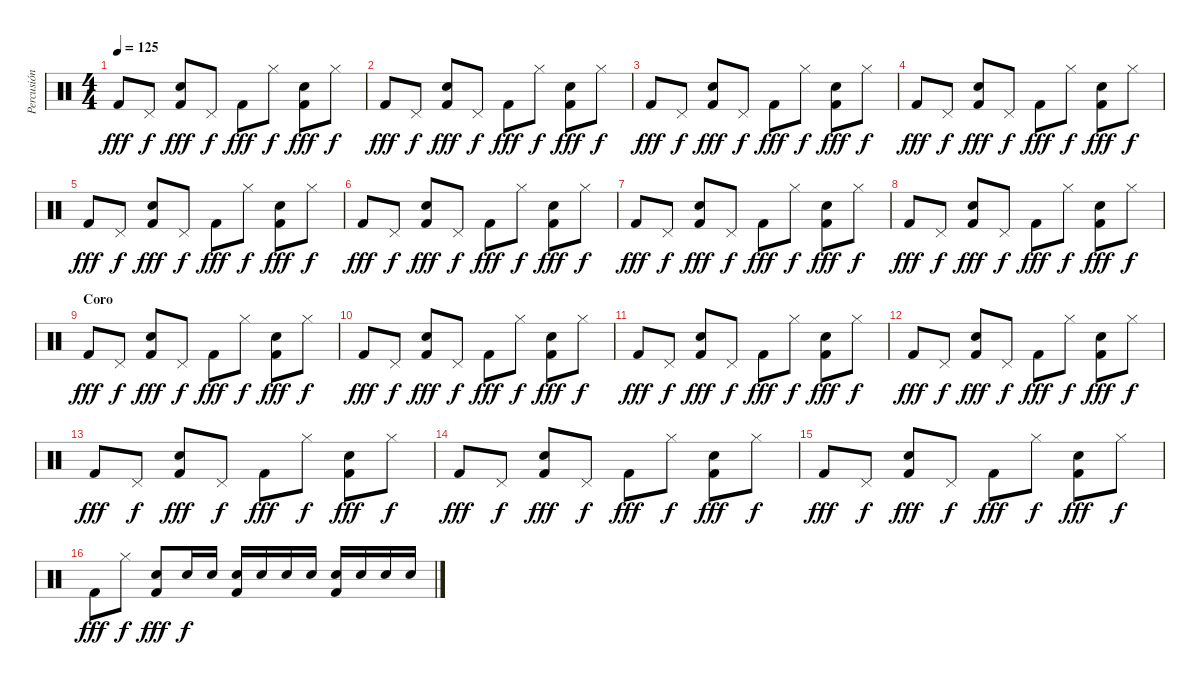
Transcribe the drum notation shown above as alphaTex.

\track ("Percusión" "Percusión") {instrument percussion}
\staff {score}
\articulation defaults
\ts (4 4)
\tempo 125
\clef neutral
\ks c "Kick (hit) 2".8{dy fff} "Pedal Hi-Hat (hit)".8{dy f}
("Electric Snare (hit)" "Kick (hit) 2").8{dy fff} "Pedal Hi-Hat (hit)".8{dy f} "Kick (hit) 2".8{dy fff} "Hi-Hat (closed)".8{dy f} ("Electric Snare (hit)" "Kick (hit) 2").8{dy fff} "Hi-Hat (closed)".8{dy f} |
"Kick (hit) 2".8{dy fff} "Pedal Hi-Hat (hit)".8{dy f} ("Electric Snare (hit)" "Kick (hit) 2").8{dy fff} "Pedal Hi-Hat (hit)".8{dy f} "Kick (hit) 2".8{dy fff} "Hi-Hat (closed)".8{dy f} ("Electric Snare (hit)" "Kick (hit) 2").8{dy fff} "Hi-Hat (closed)".8{dy f} |
"Kick (hit) 2".8{dy fff} "Pedal Hi-Hat (hit)".8{dy f} ("Electric Snare (hit)" "Kick (hit) 2").8{dy fff} "Pedal Hi-Hat (hit)".8{dy f} "Kick (hit) 2".8{dy fff} "Hi-Hat (closed)".8{dy f} ("Electric Snare (hit)" "Kick (hit) 2").8{dy fff} "Hi-Hat (closed)".8{dy f} |
"Kick (hit) 2".8{dy fff} "Pedal Hi-Hat (hit)".8{dy f} ("Electric Snare (hit)" "Kick (hit) 2").8{dy fff} "Pedal Hi-Hat (hit)".8{dy f} "Kick (hit) 2".8{dy fff} "Hi-Hat (closed)".8{dy f} ("Electric Snare (hit)" "Kick (hit) 2").8{dy fff} "Hi-Hat (closed)".8{dy f} |
"Kick (hit) 2".8{dy fff} "Pedal Hi-Hat (hit)".8{dy f} ("Electric Snare (hit)" "Kick (hit) 2").8{dy fff} "Pedal Hi-Hat (hit)".8{dy f} "Kick (hit) 2".8{dy fff} "Hi-Hat (closed)".8{dy f} ("Electric Snare (hit)" "Kick (hit) 2").8{dy fff} "Hi-Hat (closed)".8{dy f} |
"Kick (hit) 2".8{dy fff} "Pedal Hi-Hat (hit)".8{dy f} ("Electric Snare (hit)" "Kick (hit) 2").8{dy fff} "Pedal Hi-Hat (hit)".8{dy f} "Kick (hit) 2".8{dy fff} "Hi-Hat (closed)".8{dy f} ("Electric Snare (hit)" "Kick (hit) 2").8{dy fff} "Hi-Hat (closed)".8{dy f} |
"Kick (hit) 2".8{dy fff} "Pedal Hi-Hat (hit)".8{dy f} ("Electric Snare (hit)" "Kick (hit) 2").8{dy fff} "Pedal Hi-Hat (hit)".8{dy f} "Kick (hit) 2".8{dy fff} "Hi-Hat (closed)".8{dy f} ("Electric Snare (hit)" "Kick (hit) 2").8{dy fff} "Hi-Hat (closed)".8{dy f} |
"Kick (hit) 2".8{dy fff} "Pedal Hi-Hat (hit)".8{dy f} ("Electric Snare (hit)" "Kick (hit) 2").8{dy fff} "Pedal Hi-Hat (hit)".8{dy f} "Kick (hit) 2".8{dy fff} "Hi-Hat (closed)".8{dy f} ("Electric Snare (hit)" "Kick (hit) 2").8{dy fff} "Hi-Hat (closed)".8{dy f} |
\section ("" "Coro")
"Kick (hit) 2".8{dy fff} "Pedal Hi-Hat (hit)".8{dy f} ("Electric Snare (hit)" "Kick (hit) 2").8{dy fff} "Pedal Hi-Hat (hit)".8{dy f} "Kick (hit) 2".8{dy fff} "Hi-Hat (closed)".8{dy f} ("Electric Snare (hit)" "Kick (hit) 2").8{dy fff} "Hi-Hat (closed)".8{dy f} |
"Kick (hit) 2".8{dy fff} "Pedal Hi-Hat (hit)".8{dy f} ("Electric Snare (hit)" "Kick (hit) 2").8{dy fff} "Pedal Hi-Hat (hit)".8{dy f} "Kick (hit) 2".8{dy fff} "Hi-Hat (closed)".8{dy f} ("Electric Snare (hit)" "Kick (hit) 2").8{dy fff} "Hi-Hat (closed)".8{dy f} |
"Kick (hit) 2".8{dy fff} "Pedal Hi-Hat (hit)".8{dy f} ("Electric Snare (hit)" "Kick (hit) 2").8{dy fff} "Pedal Hi-Hat (hit)".8{dy f} "Kick (hit) 2".8{dy fff} "Hi-Hat (closed)".8{dy f} ("Electric Snare (hit)" "Kick (hit) 2").8{dy fff} "Hi-Hat (closed)".8{dy f} |
"Kick (hit) 2".8{dy fff} "Pedal Hi-Hat (hit)".8{dy f} ("Electric Snare (hit)" "Kick (hit) 2").8{dy fff} "Pedal Hi-Hat (hit)".8{dy f} "Kick (hit) 2".8{dy fff} "Hi-Hat (closed)".8{dy f} ("Electric Snare (hit)" "Kick (hit) 2").8{dy fff} "Hi-Hat (closed)".8{dy f} |
"Kick (hit) 2".8{dy fff} "Pedal Hi-Hat (hit)".8{dy f} ("Electric Snare (hit)" "Kick (hit) 2").8{dy fff} "Pedal Hi-Hat (hit)".8{dy f} "Kick (hit) 2".8{dy fff} "Hi-Hat (closed)".8{dy f} ("Electric Snare (hit)" "Kick (hit) 2").8{dy fff} "Hi-Hat (closed)".8{dy f} |
"Kick (hit) 2".8{dy fff} "Pedal Hi-Hat (hit)".8{dy f} ("Electric Snare (hit)" "Kick (hit) 2").8{dy fff} "Pedal Hi-Hat (hit)".8{dy f} "Kick (hit) 2".8{dy fff} "Hi-Hat (closed)".8{dy f} ("Electric Snare (hit)" "Kick (hit) 2").8{dy fff} "Hi-Hat (closed)".8{dy f} |
"Kick (hit) 2".8{dy fff} "Pedal Hi-Hat (hit)".8{dy f} ("Electric Snare (hit)" "Kick (hit) 2").8{dy fff} "Pedal Hi-Hat (hit)".8{dy f} "Kick (hit) 2".8{dy fff} "Hi-Hat (closed)".8{dy f} ("Electric Snare (hit)" "Kick (hit) 2").8{dy fff} "Hi-Hat (closed)".8{dy f} |
"Kick (hit) 2".8{dy fff} "Hi-Hat (closed)".8{dy f} ("Electric Snare (hit)" "Kick (hit) 2").8{dy fff volume 7} "Electric Snare (hit)".16{dy f volume 13} "Electric Snare (hit)".16 ("Electric Snare (hit)" "Kick (hit) 2").16 "Electric Snare (hit)".16 "Electric Snare (hit)".16 "Electric Snare (hit)".16 ("Electric Snare (hit)" "Kick (hit) 2").16 "Electric Snare (hit)".16 "Electric Snare (hit)".16 "Electric Snare (hit)".16
